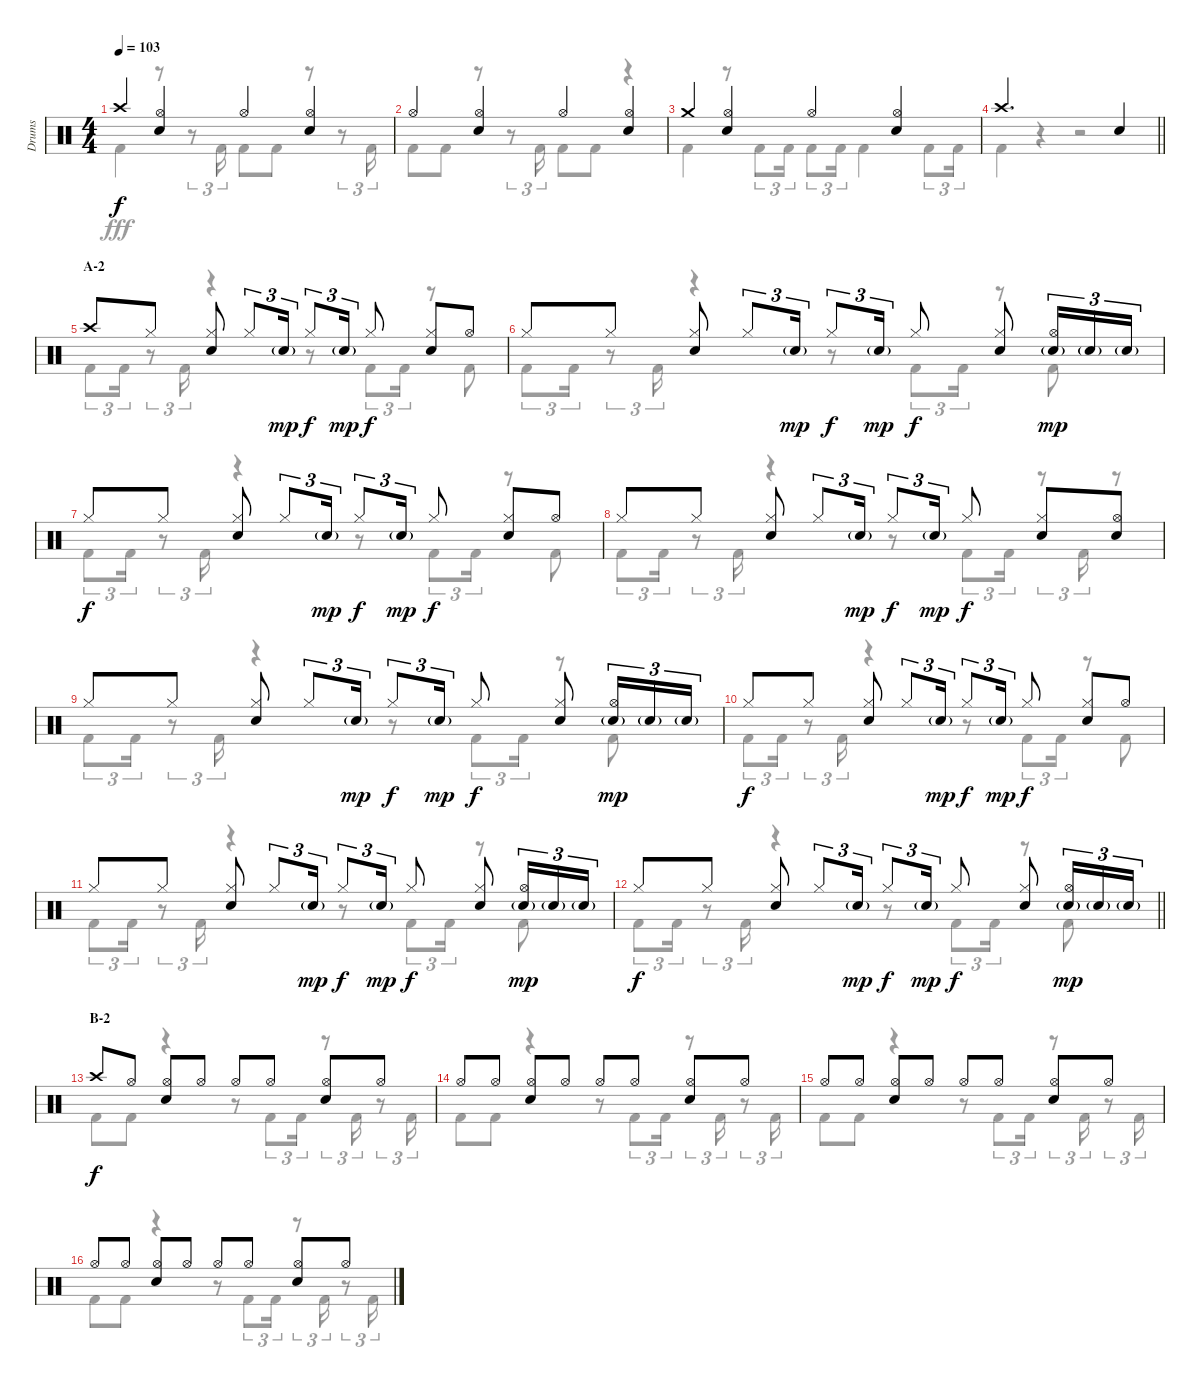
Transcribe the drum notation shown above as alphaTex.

\track ("Drums" "Drums") {instrument percussion}
\staff {score}
\articulation defaults
\voice
\ts (4 4)
\tempo 103
\clef neutral
\ks c "Crash high (hit)".4{dy f}
("Hi-Hat (open)" "Snare (hit) 2").4 "Hi-Hat (open)".4 ("Hi-Hat (open)" "Snare (hit) 2").4 |
"Hi-Hat (open)".4 ("Hi-Hat (open)" "Snare (hit) 2").4 "Hi-Hat (open)".4 ("Hi-Hat (open)" "Snare (hit) 2").4 |
"Crash medium (hit)".4 ("Hi-Hat (open)" "Snare (hit) 2").4 "Hi-Hat (open)".4 ("Hi-Hat (open)" "Snare (hit) 2").4 |
\barLineRight lightlight "Crash high (hit)".2{d} "Snare (hit) 2".4
|
\section ("" "A-2")
"Crash high (hit)".8 "Hi-Hat (closed)".8 ("Hi-Hat (closed)" "Snare (hit) 2").8 "Hi-Hat (closed)".8{tu (3 2)} "Snare (hit) 2"{g}.16{tu (3 2) dy mp} "Hi-Hat (closed)".8{tu (3 2) dy f} "Snare (hit) 2"{g}.16{tu (3 2) dy mp} "Hi-Hat (closed)".8{dy f} ("Hi-Hat (closed)" "Snare (hit) 2").8 "Hi-Hat (open)".8 |
"Hi-Hat (closed)".8 "Hi-Hat (closed)".8 ("Hi-Hat (closed)" "Snare (hit) 2").8 "Hi-Hat (closed)".8{tu (3 2)} "Snare (hit) 2"{g}.16{tu (3 2) dy mp} "Hi-Hat (closed)".8{tu (3 2) dy f} "Snare (hit) 2"{g}.16{tu (3 2) dy mp} "Hi-Hat (closed)".8{dy f} ("Hi-Hat (closed)" "Snare (hit) 2").8 ("Hi-Hat (open)" "Snare (hit) 2"{g}).16{tu (3 2) dy mp} "Snare (hit) 2"{g}.16{tu (3 2)} "Snare (hit) 2"{g}.16{tu (3 2)} |
"Hi-Hat (closed)".8{dy f} "Hi-Hat (closed)".8 ("Hi-Hat (closed)" "Snare (hit) 2").8 "Hi-Hat (closed)".8{tu (3 2)} "Snare (hit) 2"{g}.16{tu (3 2) dy mp} "Hi-Hat (closed)".8{tu (3 2) dy f} "Snare (hit) 2"{g}.16{tu (3 2) dy mp} "Hi-Hat (closed)".8{dy f} ("Hi-Hat (closed)" "Snare (hit) 2").8 "Hi-Hat (open)".8 |
"Hi-Hat (closed)".8 "Hi-Hat (closed)".8 ("Hi-Hat (closed)" "Snare (hit) 2").8 "Hi-Hat (closed)".8{tu (3 2)} "Snare (hit) 2"{g}.16{tu (3 2) dy mp} "Hi-Hat (closed)".8{tu (3 2) dy f} "Snare (hit) 2"{g}.16{tu (3 2) dy mp} "Hi-Hat (closed)".8{dy f} ("Hi-Hat (closed)" "Snare (hit) 2").8 ("Hi-Hat (open)" "Snare (hit) 2").8 |
"Hi-Hat (closed)".8 "Hi-Hat (closed)".8 ("Hi-Hat (closed)" "Snare (hit) 2").8 "Hi-Hat (closed)".8{tu (3 2)} "Snare (hit) 2"{g}.16{tu (3 2) dy mp} "Hi-Hat (closed)".8{tu (3 2) dy f} "Snare (hit) 2"{g}.16{tu (3 2) dy mp} "Hi-Hat (closed)".8{dy f} ("Hi-Hat (closed)" "Snare (hit) 2").8 ("Hi-Hat (open)" "Snare (hit) 2"{g}).16{tu (3 2) dy mp} "Snare (hit) 2"{g}.16{tu (3 2)} "Snare (hit) 2"{g}.16{tu (3 2)} |
"Hi-Hat (closed)".8{dy f} "Hi-Hat (closed)".8 ("Hi-Hat (closed)" "Snare (hit) 2").8 "Hi-Hat (closed)".8{tu (3 2)} "Snare (hit) 2"{g}.16{tu (3 2) dy mp} "Hi-Hat (closed)".8{tu (3 2) dy f} "Snare (hit) 2"{g}.16{tu (3 2) dy mp} "Hi-Hat (closed)".8{dy f} ("Hi-Hat (closed)" "Snare (hit) 2").8 "Hi-Hat (open)".8 |
"Hi-Hat (closed)".8 "Hi-Hat (closed)".8 ("Hi-Hat (closed)" "Snare (hit) 2").8 "Hi-Hat (closed)".8{tu (3 2)} "Snare (hit) 2"{g}.16{tu (3 2) dy mp} "Hi-Hat (closed)".8{tu (3 2) dy f} "Snare (hit) 2"{g}.16{tu (3 2) dy mp} "Hi-Hat (closed)".8{dy f} ("Hi-Hat (closed)" "Snare (hit) 2").8 ("Hi-Hat (open)" "Snare (hit) 2"{g}).16{tu (3 2) dy mp} "Snare (hit) 2"{g}.16{tu (3 2)} "Snare (hit) 2"{g}.16{tu (3 2)} |
\barLineRight lightlight "Hi-Hat (closed)".8{dy f} "Hi-Hat (closed)".8
("Hi-Hat (closed)" "Snare (hit) 2").8 "Hi-Hat (closed)".8{tu (3 2)} "Snare (hit) 2"{g}.16{tu (3 2) dy mp} "Hi-Hat (closed)".8{tu (3 2) dy f} "Snare (hit) 2"{g}.16{tu (3 2) dy mp} "Hi-Hat (closed)".8{dy f} ("Hi-Hat (closed)" "Snare (hit) 2").8 ("Hi-Hat (open)" "Snare (hit) 2"{g}).16{tu (3 2) dy mp} "Snare (hit) 2"{g}.16{tu (3 2)} "Snare (hit) 2"{g}.16{tu (3 2)} |
\section ("" "B-2")
"Crash high (hit)".8{dy f} "Hi-Hat (open)".8 ("Hi-Hat (open)" "Snare (hit) 2").8 "Hi-Hat (open)".8 "Hi-Hat (open)".8 "Hi-Hat (open)".8 ("Hi-Hat (open)" "Snare (hit) 2").8 "Hi-Hat (open)".8 |
"Hi-Hat (open)".8 "Hi-Hat (open)".8 ("Hi-Hat (open)" "Snare (hit) 2").8 "Hi-Hat (open)".8 "Hi-Hat (open)".8 "Hi-Hat (open)".8 ("Hi-Hat (open)" "Snare (hit) 2").8 "Hi-Hat (open)".8 |
"Hi-Hat (open)".8 "Hi-Hat (open)".8 ("Hi-Hat (open)" "Snare (hit) 2").8 "Hi-Hat (open)".8 "Hi-Hat (open)".8 "Hi-Hat (open)".8 ("Hi-Hat (open)" "Snare (hit) 2").8 "Hi-Hat (open)".8 |
"Hi-Hat (open)".8 "Hi-Hat (open)".8 ("Hi-Hat (open)" "Snare (hit) 2").8 "Hi-Hat (open)".8 "Hi-Hat (open)".8 "Hi-Hat (open)".8 ("Hi-Hat (open)" "Snare (hit) 2").8 "Hi-Hat (open)".8
\voice
\clef neutral
\ottava regular
\simile none
\ks c "Kick (hit) 2".4{dy fff}
r.8 r.8{tu (3 2)} "Kick (hit) 2".16{tu (3 2)} "Kick (hit) 2".8 "Kick (hit) 2".8 r.8 r.8{tu (3 2)} "Kick (hit) 2".16{tu (3 2)} |
"Kick (hit) 2".8 "Kick (hit) 2".8 r.8 r.8{tu (3 2)} "Kick (hit) 2".16{tu (3 2)} "Kick (hit) 2".8 "Kick (hit) 2".8 r.4 |
"Kick (hit) 2".4 r.8 "Kick (hit) 2".8{tu (3 2)} "Kick (hit) 2".16{tu (3 2)} "Kick (hit) 2".8{tu (3 2)} "Kick (hit) 2".16{tu (3 2)} "Kick (hit) 2".4 "Kick (hit) 2".8{tu (3 2)} "Kick (hit) 2".16{tu (3 2)} |
\barLineRight lightlight "Kick (hit) 2".4
r.4 r.2 |
"Kick (hit) 2".8{tu (3 2)} "Kick (hit) 2".16{tu (3 2)} r.8{tu (3 2)} "Kick (hit) 2".16{tu (3 2)} r.4 r.8 "Kick (hit) 2".8{tu (3 2)} "Kick (hit) 2".16{tu (3 2)} r.8 "Kick (hit) 2".8 |
"Kick (hit) 2".8{tu (3 2)} "Kick (hit) 2".16{tu (3 2)} r.8{tu (3 2)} "Kick (hit) 2".16{tu (3 2)} r.4 r.8 "Kick (hit) 2".8{tu (3 2)} "Kick (hit) 2".16{tu (3 2)} r.8 "Kick (hit) 2".8 |
"Kick (hit) 2".8{tu (3 2)} "Kick (hit) 2".16{tu (3 2)} r.8{tu (3 2)} "Kick (hit) 2".16{tu (3 2)} r.4 r.8 "Kick (hit) 2".8{tu (3 2)} "Kick (hit) 2".16{tu (3 2)} r.8 "Kick (hit) 2".8 |
"Kick (hit) 2".8{tu (3 2)} "Kick (hit) 2".16{tu (3 2)} r.8{tu (3 2)} "Kick (hit) 2".16{tu (3 2)} r.4 r.8 "Kick (hit) 2".8{tu (3 2)} "Kick (hit) 2".16{tu (3 2)} r.8{tu (3 2)} "Kick (hit) 2".16{tu (3 2)} r.8 |
"Kick (hit) 2".8{tu (3 2)} "Kick (hit) 2".16{tu (3 2)} r.8{tu (3 2)} "Kick (hit) 2".16{tu (3 2)} r.4 r.8 "Kick (hit) 2".8{tu (3 2)} "Kick (hit) 2".16{tu (3 2)} r.8 "Kick (hit) 2".8 |
"Kick (hit) 2".8{tu (3 2)} "Kick (hit) 2".16{tu (3 2)} r.8{tu (3 2)} "Kick (hit) 2".16{tu (3 2)} r.4 r.8 "Kick (hit) 2".8{tu (3 2)} "Kick (hit) 2".16{tu (3 2)} r.8 "Kick (hit) 2".8 |
"Kick (hit) 2".8{tu (3 2)} "Kick (hit) 2".16{tu (3 2)} r.8{tu (3 2)} "Kick (hit) 2".16{tu (3 2)} r.4 r.8 "Kick (hit) 2".8{tu (3 2)} "Kick (hit) 2".16{tu (3 2)} r.8 "Kick (hit) 2".8 |
\barLineRight lightlight "Kick (hit) 2".8{tu (3 2)} "Kick (hit) 2".16{tu (3 2)}
r.8{tu (3 2)} "Kick (hit) 2".16{tu (3 2)} r.4 r.8 "Kick (hit) 2".8{tu (3 2)} "Kick (hit) 2".16{tu (3 2)} r.8 "Kick (hit) 2".8 |
"Kick (hit) 2".8 "Kick (hit) 2".8 r.4 r.8 "Kick (hit) 2".8{tu (3 2)} "Kick (hit) 2".16{tu (3 2)} r.8{tu (3 2)} "Kick (hit) 2".16{tu (3 2)} r.8{tu (3 2)} "Kick (hit) 2".16{tu (3 2)} |
"Kick (hit) 2".8 "Kick (hit) 2".8 r.4 r.8 "Kick (hit) 2".8{tu (3 2)} "Kick (hit) 2".16{tu (3 2)} r.8{tu (3 2)} "Kick (hit) 2".16{tu (3 2)} r.8{tu (3 2)} "Kick (hit) 2".16{tu (3 2)} |
"Kick (hit) 2".8 "Kick (hit) 2".8 r.4 r.8 "Kick (hit) 2".8{tu (3 2)} "Kick (hit) 2".16{tu (3 2)} r.8{tu (3 2)} "Kick (hit) 2".16{tu (3 2)} r.8{tu (3 2)} "Kick (hit) 2".16{tu (3 2)} |
"Kick (hit) 2".8 "Kick (hit) 2".8 r.4 r.8 "Kick (hit) 2".8{tu (3 2)} "Kick (hit) 2".16{tu (3 2)} r.8{tu (3 2)} "Kick (hit) 2".16{tu (3 2)} r.8{tu (3 2)} "Kick (hit) 2".16{tu (3 2)}
